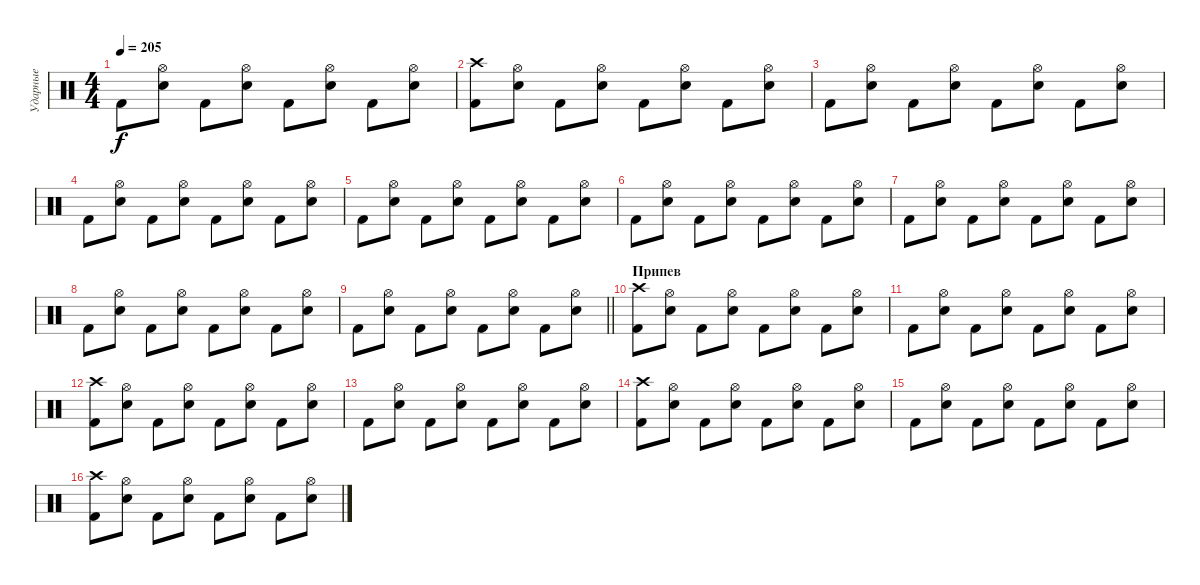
\track ("Ударные" "Ударные") {instrument percussion}
\staff {score}
\articulation defaults
\ts (4 4)
\tempo 205
\clef neutral
\ks c "Kick (hit) 2".8{dy f}
("Hi-Hat (open)" "Electric Snare (hit)").8 "Kick (hit) 2".8 ("Hi-Hat (open)" "Electric Snare (hit)").8 "Kick (hit) 2".8 ("Hi-Hat (open)" "Electric Snare (hit)").8 "Kick (hit) 2".8 ("Hi-Hat (open)" "Electric Snare (hit)").8 |
("Crash high (hit)" "Kick (hit) 2").8 ("Hi-Hat (open)" "Electric Snare (hit)").8 "Kick (hit) 2".8 ("Hi-Hat (open)" "Electric Snare (hit)").8 "Kick (hit) 2".8 ("Hi-Hat (open)" "Electric Snare (hit)").8 "Kick (hit) 2".8 ("Hi-Hat (open)" "Electric Snare (hit)").8 |
"Kick (hit) 2".8 ("Hi-Hat (open)" "Electric Snare (hit)").8 "Kick (hit) 2".8 ("Hi-Hat (open)" "Electric Snare (hit)").8 "Kick (hit) 2".8 ("Hi-Hat (open)" "Electric Snare (hit)").8 "Kick (hit) 2".8 ("Hi-Hat (open)" "Electric Snare (hit)").8 |
"Kick (hit) 2".8 ("Hi-Hat (open)" "Electric Snare (hit)").8 "Kick (hit) 2".8 ("Hi-Hat (open)" "Electric Snare (hit)").8 "Kick (hit) 2".8 ("Hi-Hat (open)" "Electric Snare (hit)").8 "Kick (hit) 2".8 ("Hi-Hat (open)" "Electric Snare (hit)").8 |
"Kick (hit) 2".8 ("Hi-Hat (open)" "Electric Snare (hit)").8 "Kick (hit) 2".8 ("Hi-Hat (open)" "Electric Snare (hit)").8 "Kick (hit) 2".8 ("Hi-Hat (open)" "Electric Snare (hit)").8 "Kick (hit) 2".8 ("Hi-Hat (open)" "Electric Snare (hit)").8 |
"Kick (hit) 2".8 ("Hi-Hat (open)" "Electric Snare (hit)").8 "Kick (hit) 2".8 ("Hi-Hat (open)" "Electric Snare (hit)").8 "Kick (hit) 2".8 ("Hi-Hat (open)" "Electric Snare (hit)").8 "Kick (hit) 2".8 ("Hi-Hat (open)" "Electric Snare (hit)").8 |
"Kick (hit) 2".8 ("Hi-Hat (open)" "Electric Snare (hit)").8 "Kick (hit) 2".8 ("Hi-Hat (open)" "Electric Snare (hit)").8 "Kick (hit) 2".8 ("Hi-Hat (open)" "Electric Snare (hit)").8 "Kick (hit) 2".8 ("Hi-Hat (open)" "Electric Snare (hit)").8 |
"Kick (hit) 2".8 ("Hi-Hat (open)" "Electric Snare (hit)").8 "Kick (hit) 2".8 ("Hi-Hat (open)" "Electric Snare (hit)").8 "Kick (hit) 2".8 ("Hi-Hat (open)" "Electric Snare (hit)").8 "Kick (hit) 2".8 ("Hi-Hat (open)" "Electric Snare (hit)").8 |
\barLineRight lightlight "Kick (hit) 2".8
("Hi-Hat (open)" "Electric Snare (hit)").8 "Kick (hit) 2".8 ("Hi-Hat (open)" "Electric Snare (hit)").8 "Kick (hit) 2".8 ("Hi-Hat (open)" "Electric Snare (hit)").8 "Kick (hit) 2".8 ("Hi-Hat (open)" "Electric Snare (hit)").8 |
\section ("" "Припев")
("Crash high (hit)" "Kick (hit) 2").8 ("Hi-Hat (open)" "Electric Snare (hit)").8 "Kick (hit) 2".8 ("Hi-Hat (open)" "Electric Snare (hit)").8 "Kick (hit) 2".8 ("Hi-Hat (open)" "Electric Snare (hit)").8 "Kick (hit) 2".8 ("Hi-Hat (open)" "Electric Snare (hit)").8 |
"Kick (hit) 2".8 ("Hi-Hat (open)" "Electric Snare (hit)").8 "Kick (hit) 2".8 ("Hi-Hat (open)" "Electric Snare (hit)").8 "Kick (hit) 2".8 ("Hi-Hat (open)" "Electric Snare (hit)").8 "Kick (hit) 2".8 ("Hi-Hat (open)" "Electric Snare (hit)").8 |
("Crash high (hit)" "Kick (hit) 2").8 ("Hi-Hat (open)" "Electric Snare (hit)").8 "Kick (hit) 2".8 ("Hi-Hat (open)" "Electric Snare (hit)").8 "Kick (hit) 2".8 ("Hi-Hat (open)" "Electric Snare (hit)").8 "Kick (hit) 2".8 ("Hi-Hat (open)" "Electric Snare (hit)").8 |
"Kick (hit) 2".8 ("Hi-Hat (open)" "Electric Snare (hit)").8 "Kick (hit) 2".8 ("Hi-Hat (open)" "Electric Snare (hit)").8 "Kick (hit) 2".8 ("Hi-Hat (open)" "Electric Snare (hit)").8 "Kick (hit) 2".8 ("Hi-Hat (open)" "Electric Snare (hit)").8 |
("Crash high (hit)" "Kick (hit) 2").8 ("Hi-Hat (open)" "Electric Snare (hit)").8 "Kick (hit) 2".8 ("Hi-Hat (open)" "Electric Snare (hit)").8 "Kick (hit) 2".8 ("Hi-Hat (open)" "Electric Snare (hit)").8 "Kick (hit) 2".8 ("Hi-Hat (open)" "Electric Snare (hit)").8 |
"Kick (hit) 2".8 ("Hi-Hat (open)" "Electric Snare (hit)").8 "Kick (hit) 2".8 ("Hi-Hat (open)" "Electric Snare (hit)").8 "Kick (hit) 2".8 ("Hi-Hat (open)" "Electric Snare (hit)").8 "Kick (hit) 2".8 ("Hi-Hat (open)" "Electric Snare (hit)").8 |
("Crash high (hit)" "Kick (hit) 2").8 ("Hi-Hat (open)" "Electric Snare (hit)").8 "Kick (hit) 2".8 ("Hi-Hat (open)" "Electric Snare (hit)").8 "Kick (hit) 2".8 ("Hi-Hat (open)" "Electric Snare (hit)").8 "Kick (hit) 2".8 ("Hi-Hat (open)" "Electric Snare (hit)").8
